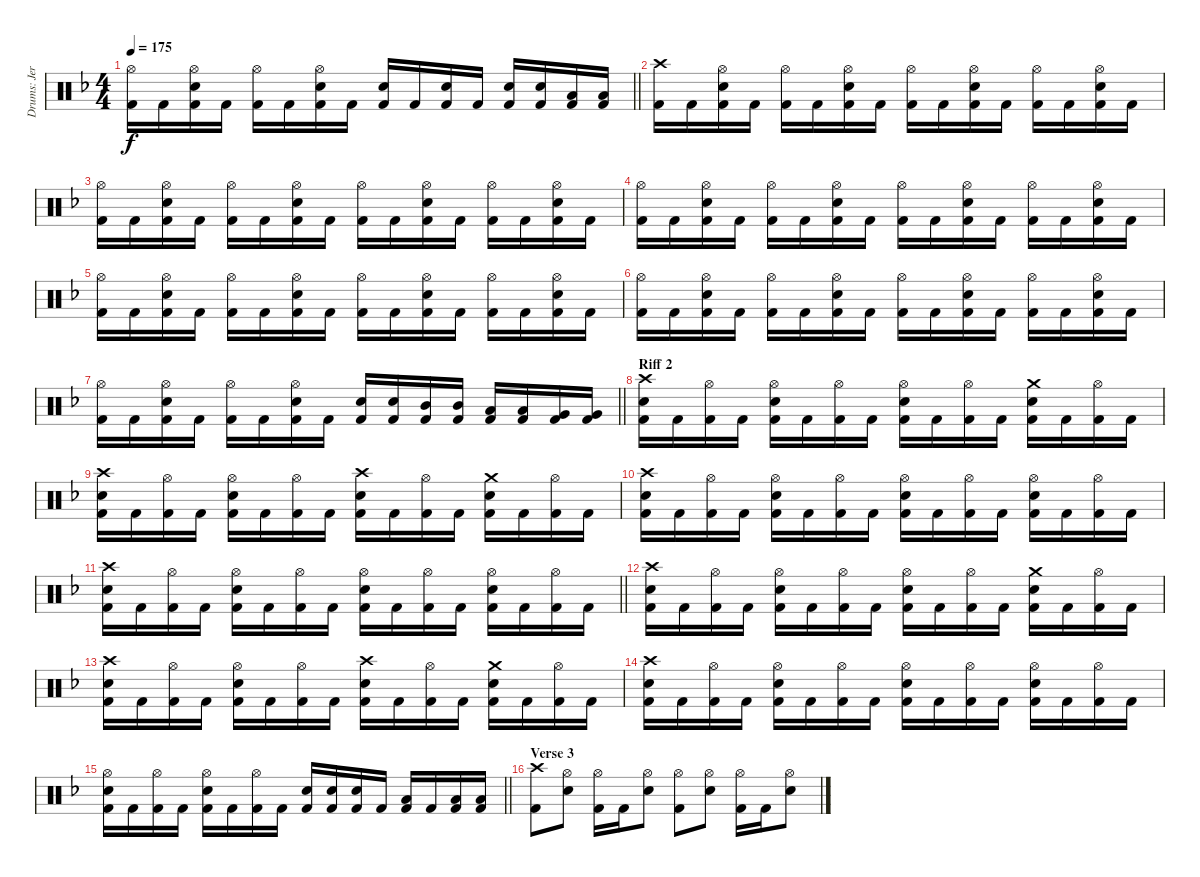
\track ("Drums: Jere Luokkamäki" "Drums: Jer") {instrument percussion}
\staff {score}
\articulation defaults
\ts (4 4)
\tempo 175
\clef neutral
\barLineRight lightlight
\ks dminor
("Hi-Hat (open)" "Kick (hit) 2").16{dy f} "Kick (hit) 2".16 ("Hi-Hat (open)" "Electric Snare (hit)" "Kick (hit) 2").16 "Kick (hit) 2".16 ("Hi-Hat (open)" "Kick (hit) 2").16 "Kick (hit) 2".16 ("Hi-Hat (open)" "Electric Snare (hit)" "Kick (hit) 2").16 "Kick (hit) 2".16 ("Electric Snare (hit)" "Kick (hit) 2").16 "Kick (hit) 2".16 ("Electric Snare (hit)" "Kick (hit) 2").16 "Kick (hit) 2".16 ("Electric Snare (hit)" "Kick (hit) 2").16 ("Electric Snare (hit)" "Kick (hit) 2").16 ("Low Tom (hit)" "Kick (hit) 2").16 ("Low Tom (hit)" "Kick (hit) 2").16 |
("Crash high (hit)" "Kick (hit) 2").16 "Kick (hit) 2".16 ("Hi-Hat (open)" "Electric Snare (hit)" "Kick (hit) 2").16 "Kick (hit) 2".16 ("Hi-Hat (open)" "Kick (hit) 2").16 "Kick (hit) 2".16 ("Hi-Hat (open)" "Electric Snare (hit)" "Kick (hit) 2").16 "Kick (hit) 2".16 ("Hi-Hat (open)" "Kick (hit) 2").16 "Kick (hit) 2".16 ("Hi-Hat (open)" "Electric Snare (hit)" "Kick (hit) 2").16 "Kick (hit) 2".16 ("Hi-Hat (open)" "Kick (hit) 2").16 "Kick (hit) 2".16 ("Hi-Hat (open)" "Electric Snare (hit)" "Kick (hit) 2").16 "Kick (hit) 2".16 |
("Hi-Hat (open)" "Kick (hit) 2").16 "Kick (hit) 2".16 ("Hi-Hat (open)" "Electric Snare (hit)" "Kick (hit) 2").16 "Kick (hit) 2".16 ("Hi-Hat (open)" "Kick (hit) 2").16 "Kick (hit) 2".16 ("Hi-Hat (open)" "Electric Snare (hit)" "Kick (hit) 2").16 "Kick (hit) 2".16 ("Hi-Hat (open)" "Kick (hit) 2").16 "Kick (hit) 2".16 ("Hi-Hat (open)" "Electric Snare (hit)" "Kick (hit) 2").16 "Kick (hit) 2".16 ("Hi-Hat (open)" "Kick (hit) 2").16 "Kick (hit) 2".16 ("Hi-Hat (open)" "Electric Snare (hit)" "Kick (hit) 2").16 "Kick (hit) 2".16 |
("Hi-Hat (open)" "Kick (hit) 2").16 "Kick (hit) 2".16 ("Hi-Hat (open)" "Electric Snare (hit)" "Kick (hit) 2").16 "Kick (hit) 2".16 ("Hi-Hat (open)" "Kick (hit) 2").16 "Kick (hit) 2".16 ("Hi-Hat (open)" "Electric Snare (hit)" "Kick (hit) 2").16 "Kick (hit) 2".16 ("Hi-Hat (open)" "Kick (hit) 2").16 "Kick (hit) 2".16 ("Hi-Hat (open)" "Electric Snare (hit)" "Kick (hit) 2").16 "Kick (hit) 2".16 ("Hi-Hat (open)" "Kick (hit) 2").16 "Kick (hit) 2".16 ("Hi-Hat (open)" "Electric Snare (hit)" "Kick (hit) 2").16 "Kick (hit) 2".16 |
("Hi-Hat (open)" "Kick (hit) 2").16 "Kick (hit) 2".16 ("Hi-Hat (open)" "Electric Snare (hit)" "Kick (hit) 2").16 "Kick (hit) 2".16 ("Hi-Hat (open)" "Kick (hit) 2").16 "Kick (hit) 2".16 ("Hi-Hat (open)" "Electric Snare (hit)" "Kick (hit) 2").16 "Kick (hit) 2".16 ("Hi-Hat (open)" "Kick (hit) 2").16 "Kick (hit) 2".16 ("Hi-Hat (open)" "Electric Snare (hit)" "Kick (hit) 2").16 "Kick (hit) 2".16 ("Hi-Hat (open)" "Kick (hit) 2").16 "Kick (hit) 2".16 ("Hi-Hat (open)" "Electric Snare (hit)" "Kick (hit) 2").16 "Kick (hit) 2".16 |
("Hi-Hat (open)" "Kick (hit) 2").16 "Kick (hit) 2".16 ("Hi-Hat (open)" "Electric Snare (hit)" "Kick (hit) 2").16 "Kick (hit) 2".16 ("Hi-Hat (open)" "Kick (hit) 2").16 "Kick (hit) 2".16 ("Hi-Hat (open)" "Electric Snare (hit)" "Kick (hit) 2").16 "Kick (hit) 2".16 ("Hi-Hat (open)" "Kick (hit) 2").16 "Kick (hit) 2".16 ("Hi-Hat (open)" "Electric Snare (hit)" "Kick (hit) 2").16 "Kick (hit) 2".16 ("Hi-Hat (open)" "Kick (hit) 2").16 "Kick (hit) 2".16 ("Hi-Hat (open)" "Electric Snare (hit)" "Kick (hit) 2").16 "Kick (hit) 2".16 |
\barLineRight lightlight
("Hi-Hat (open)" "Kick (hit) 2").16 "Kick (hit) 2".16 ("Hi-Hat (open)" "Electric Snare (hit)" "Kick (hit) 2").16 "Kick (hit) 2".16 ("Hi-Hat (open)" "Kick (hit) 2").16 "Kick (hit) 2".16 ("Hi-Hat (open)" "Electric Snare (hit)" "Kick (hit) 2").16 "Kick (hit) 2".16 ("Electric Snare (hit)" "Kick (hit) 2").16 ("Electric Snare (hit)" "Kick (hit) 2").16 ("Mid Tom (hit)" "Kick (hit) 2").16 ("Mid Tom (hit)" "Kick (hit) 2").16 ("Low Tom (hit)" "Kick (hit) 2").16 ("Low Tom (hit)" "Kick (hit) 2").16 ("Very Low Tom (hit)" "Kick (hit) 2").16 ("Very Low Tom (hit)" "Kick (hit) 2").16 |
\section ("" "Riff 2")
("Crash high (hit)" "Electric Snare (hit)" "Kick (hit) 2").16 "Kick (hit) 2".16 ("Hi-Hat (open)" "Kick (hit) 2").16 "Kick (hit) 2".16 ("Hi-Hat (open)" "Electric Snare (hit)" "Kick (hit) 2").16 "Kick (hit) 2".16 ("Hi-Hat (open)" "Kick (hit) 2").16 "Kick (hit) 2".16 ("Hi-Hat (open)" "Electric Snare (hit)" "Kick (hit) 2").16 "Kick (hit) 2".16 ("Hi-Hat (open)" "Kick (hit) 2").16 "Kick (hit) 2".16 ("Crash medium (hit)" "Electric Snare (hit)" "Kick (hit) 2").16 "Kick (hit) 2".16 ("Hi-Hat (open)" "Kick (hit) 2").16 "Kick (hit) 2".16 |
("Crash high (hit)" "Electric Snare (hit)" "Kick (hit) 2").16 "Kick (hit) 2".16 ("Hi-Hat (open)" "Kick (hit) 2").16 "Kick (hit) 2".16 ("Hi-Hat (open)" "Electric Snare (hit)" "Kick (hit) 2").16 "Kick (hit) 2".16 ("Hi-Hat (open)" "Kick (hit) 2").16 "Kick (hit) 2".16 ("Crash high (hit)" "Electric Snare (hit)" "Kick (hit) 2").16 "Kick (hit) 2".16 ("Hi-Hat (open)" "Kick (hit) 2").16 "Kick (hit) 2".16 ("Crash medium (hit)" "Electric Snare (hit)" "Kick (hit) 2").16 "Kick (hit) 2".16 ("Hi-Hat (open)" "Kick (hit) 2").16 "Kick (hit) 2".16 |
("Crash high (hit)" "Electric Snare (hit)" "Kick (hit) 2").16 "Kick (hit) 2".16 ("Hi-Hat (open)" "Kick (hit) 2").16 "Kick (hit) 2".16 ("Hi-Hat (open)" "Electric Snare (hit)" "Kick (hit) 2").16 "Kick (hit) 2".16 ("Hi-Hat (open)" "Kick (hit) 2").16 "Kick (hit) 2".16 ("Hi-Hat (open)" "Electric Snare (hit)" "Kick (hit) 2").16 "Kick (hit) 2".16 ("Hi-Hat (open)" "Kick (hit) 2").16 "Kick (hit) 2".16 ("Hi-Hat (open)" "Electric Snare (hit)" "Kick (hit) 2").16 "Kick (hit) 2".16 ("Hi-Hat (open)" "Kick (hit) 2").16 "Kick (hit) 2".16 |
\barLineRight lightlight
("Crash high (hit)" "Electric Snare (hit)" "Kick (hit) 2").16 "Kick (hit) 2".16 ("Hi-Hat (open)" "Kick (hit) 2").16 "Kick (hit) 2".16 ("Hi-Hat (open)" "Electric Snare (hit)" "Kick (hit) 2").16 "Kick (hit) 2".16 ("Hi-Hat (open)" "Kick (hit) 2").16 "Kick (hit) 2".16 ("Hi-Hat (open)" "Electric Snare (hit)" "Kick (hit) 2").16 "Kick (hit) 2".16 ("Hi-Hat (open)" "Kick (hit) 2").16 "Kick (hit) 2".16 ("Hi-Hat (open)" "Electric Snare (hit)" "Kick (hit) 2").16 "Kick (hit) 2".16 ("Hi-Hat (open)" "Kick (hit) 2").16 "Kick (hit) 2".16 |
("Crash high (hit)" "Electric Snare (hit)" "Kick (hit) 2").16 "Kick (hit) 2".16 ("Hi-Hat (open)" "Kick (hit) 2").16 "Kick (hit) 2".16 ("Hi-Hat (open)" "Electric Snare (hit)" "Kick (hit) 2").16 "Kick (hit) 2".16 ("Hi-Hat (open)" "Kick (hit) 2").16 "Kick (hit) 2".16 ("Hi-Hat (open)" "Electric Snare (hit)" "Kick (hit) 2").16 "Kick (hit) 2".16 ("Hi-Hat (open)" "Kick (hit) 2").16 "Kick (hit) 2".16 ("Crash medium (hit)" "Electric Snare (hit)" "Kick (hit) 2").16 "Kick (hit) 2".16 ("Hi-Hat (open)" "Kick (hit) 2").16 "Kick (hit) 2".16 |
("Crash high (hit)" "Electric Snare (hit)" "Kick (hit) 2").16 "Kick (hit) 2".16 ("Hi-Hat (open)" "Kick (hit) 2").16 "Kick (hit) 2".16 ("Hi-Hat (open)" "Electric Snare (hit)" "Kick (hit) 2").16 "Kick (hit) 2".16 ("Hi-Hat (open)" "Kick (hit) 2").16 "Kick (hit) 2".16 ("Crash high (hit)" "Electric Snare (hit)" "Kick (hit) 2").16 "Kick (hit) 2".16 ("Hi-Hat (open)" "Kick (hit) 2").16 "Kick (hit) 2".16 ("Crash medium (hit)" "Electric Snare (hit)" "Kick (hit) 2").16 "Kick (hit) 2".16 ("Hi-Hat (open)" "Kick (hit) 2").16 "Kick (hit) 2".16 |
("Crash high (hit)" "Electric Snare (hit)" "Kick (hit) 2").16 "Kick (hit) 2".16 ("Hi-Hat (open)" "Kick (hit) 2").16 "Kick (hit) 2".16 ("Hi-Hat (open)" "Electric Snare (hit)" "Kick (hit) 2").16 "Kick (hit) 2".16 ("Hi-Hat (open)" "Kick (hit) 2").16 "Kick (hit) 2".16 ("Hi-Hat (open)" "Electric Snare (hit)" "Kick (hit) 2").16 "Kick (hit) 2".16 ("Hi-Hat (open)" "Kick (hit) 2").16 "Kick (hit) 2".16 ("Hi-Hat (open)" "Electric Snare (hit)" "Kick (hit) 2").16 "Kick (hit) 2".16 ("Hi-Hat (open)" "Kick (hit) 2").16 "Kick (hit) 2".16 |
\barLineRight lightlight
("Hi-Hat (open)" "Electric Snare (hit)" "Kick (hit) 2").16 "Kick (hit) 2".16 ("Hi-Hat (open)" "Kick (hit) 2").16 "Kick (hit) 2".16 ("Hi-Hat (open)" "Electric Snare (hit)" "Kick (hit) 2").16 "Kick (hit) 2".16 ("Hi-Hat (open)" "Kick (hit) 2").16 "Kick (hit) 2".16 ("Electric Snare (hit)" "Kick (hit) 2").16 ("Electric Snare (hit)" "Kick (hit) 2").16 ("Electric Snare (hit)" "Kick (hit) 2").16 "Kick (hit) 2".16 ("Low Tom (hit)" "Kick (hit) 2").16 "Kick (hit) 2".16 ("Low Tom (hit)" "Kick (hit) 2").16 ("Low Tom (hit)" "Kick (hit) 2").16 |
\section ("" "Verse 3")
("Crash high (hit)" "Kick (hit) 2").8 ("Hi-Hat (open)" "Electric Snare (hit)").8 ("Hi-Hat (open)" "Kick (hit) 2").16 "Kick (hit) 2".16 ("Hi-Hat (open)" "Electric Snare (hit)").8 ("Hi-Hat (open)" "Kick (hit) 2").8 ("Hi-Hat (open)" "Electric Snare (hit)").8 ("Hi-Hat (open)" "Kick (hit) 2").16 "Kick (hit) 2".16 ("Hi-Hat (open)" "Electric Snare (hit)").8
